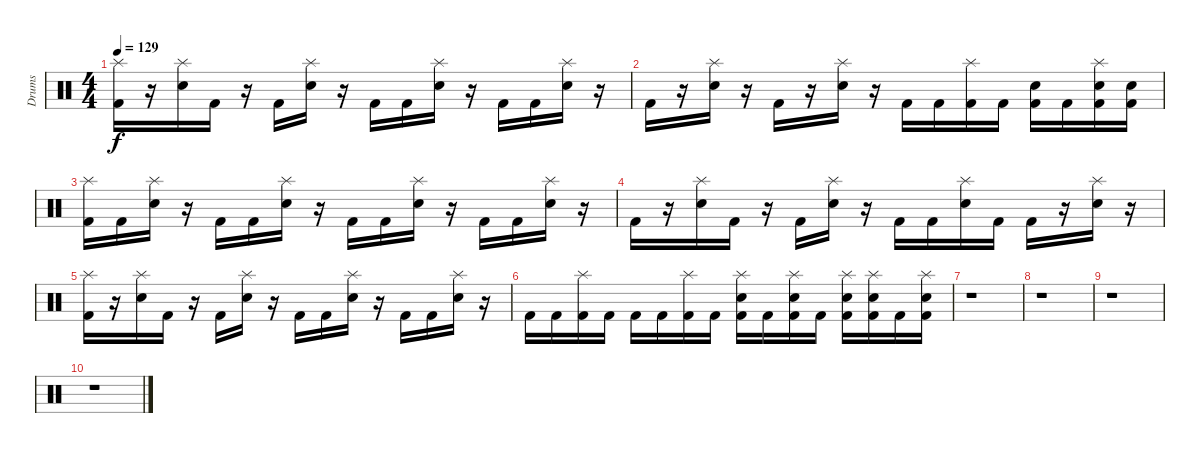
\track ("Drums" "Drums") {instrument percussion}
\staff {score}
\articulation defaults
\ts (4 4)
\tempo 129
\clef neutral
\ks c
("Splash (hit)" "Kick (hit) 2").16{dy f} r.16 ("Snare (hit) 2" "Splash (hit)").16 "Kick (hit) 2".16 r.16 "Kick (hit) 2".16 ("Snare (hit) 2" "Splash (hit)").16 r.16 "Kick (hit) 2".16 "Kick (hit) 2".16 ("Snare (hit) 2" "Splash (hit)").16 r.16 "Kick (hit) 2".16 "Kick (hit) 2".16 ("Snare (hit) 2" "Splash (hit)").16 r.16 |
"Kick (hit) 2".16 r.16 ("Snare (hit) 2" "Splash (hit)").16 r.16 "Kick (hit) 2".16 r.16 ("Snare (hit) 2" "Splash (hit)").16 r.16 "Kick (hit) 2".16 "Kick (hit) 2".16 ("Splash (hit)" "Kick (hit) 2").16 "Kick (hit) 2".16 ("Snare (hit) 2" "Kick (hit) 2").16 "Kick (hit) 2".16 ("Snare (hit) 2" "Splash (hit)" "Kick (hit) 2").16 ("Snare (hit) 2" "Kick (hit) 2").16 |
("Splash (hit)" "Kick (hit) 2").16 "Kick (hit) 2".16 ("Snare (hit) 2" "Splash (hit)").16 r.16 "Kick (hit) 2".16 "Kick (hit) 2".16 ("Snare (hit) 2" "Splash (hit)").16 r.16 "Kick (hit) 2".16 "Kick (hit) 2".16 ("Snare (hit) 2" "Splash (hit)").16 r.16 "Kick (hit) 2".16 "Kick (hit) 2".16 ("Snare (hit) 2" "Splash (hit)").16 r.16 |
"Kick (hit) 2".16 r.16 ("Snare (hit) 2" "Splash (hit)").16 "Kick (hit) 2".16 r.16 "Kick (hit) 2".16 ("Snare (hit) 2" "Splash (hit)").16 r.16 "Kick (hit) 2".16 "Kick (hit) 2".16 ("Snare (hit) 2" "Splash (hit)").16 "Kick (hit) 2".16 "Kick (hit) 2".16 r.16 ("Snare (hit) 2" "Splash (hit)").16 r.16 |
("Splash (hit)" "Kick (hit) 2").16 r.16 ("Snare (hit) 2" "Splash (hit)").16 "Kick (hit) 2".16 r.16 "Kick (hit) 2".16 ("Snare (hit) 2" "Splash (hit)").16 r.16 "Kick (hit) 2".16 "Kick (hit) 2".16 ("Snare (hit) 2" "Splash (hit)").16 r.16 "Kick (hit) 2".16 "Kick (hit) 2".16 ("Snare (hit) 2" "Splash (hit)").16 r.16 |
"Kick (hit) 2".16 "Kick (hit) 2".16 ("Splash (hit)" "Kick (hit) 2").16 "Kick (hit) 2".16 "Kick (hit) 2".16 "Kick (hit) 2".16 ("Splash (hit)" "Kick (hit) 2").16 "Kick (hit) 2".16 ("Snare (hit) 2" "Splash (hit)" "Kick (hit) 2").16 "Kick (hit) 2".16 ("Snare (hit) 2" "Splash (hit)" "Kick (hit) 2").16 "Kick (hit) 2".16 ("Snare (hit) 2" "Splash (hit)" "Kick (hit) 2").16 ("Snare (hit) 2" "Splash (hit)" "Kick (hit) 2").16 "Kick (hit) 2".16 ("Snare (hit) 2" "Splash (hit)" "Kick (hit) 2").16 |
r.1 |
r.1 |
r.1 |
r.1
